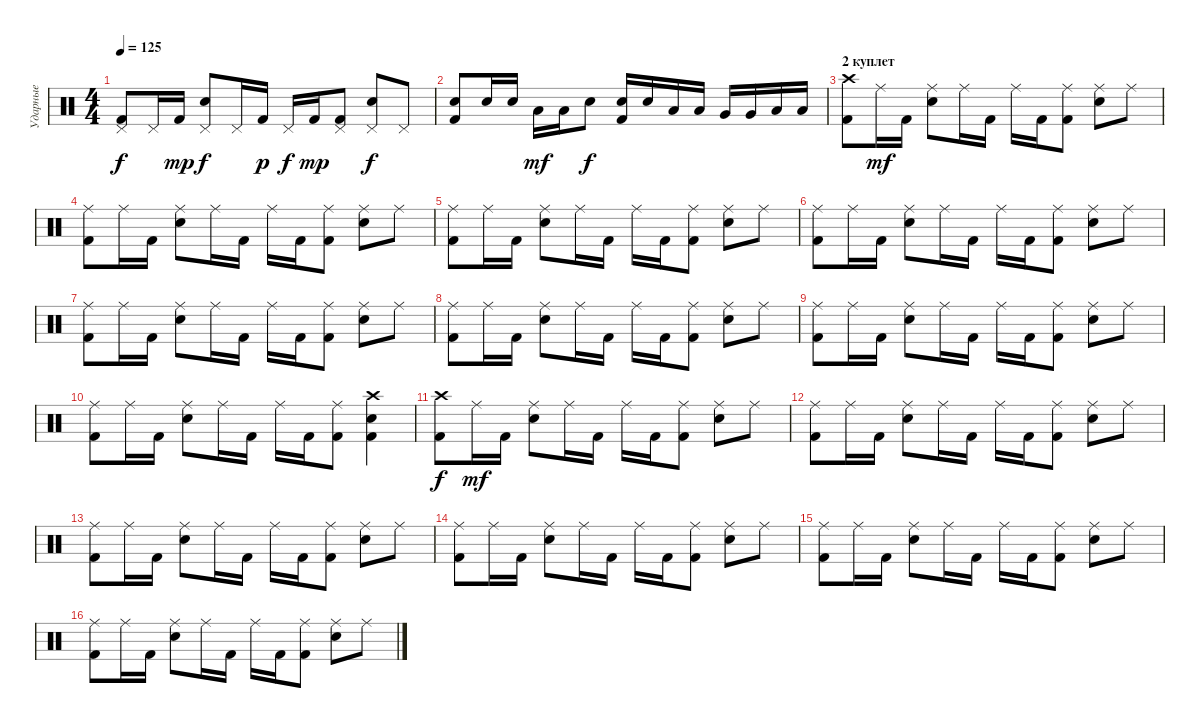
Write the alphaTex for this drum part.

\track ("Ударные" "Ударные") {instrument percussion}
\staff {score}
\articulation defaults
\ts (4 4)
\tempo 125
\clef neutral
\ks c
("Pedal Hi-Hat (hit)" "Kick (hit) 2").8{dy f} "Pedal Hi-Hat (hit)".16 "Kick (hit) 2".16{dy mp} ("Pedal Hi-Hat (hit)" "Snare (hit) 2").8{dy f} "Pedal Hi-Hat (hit)".16 "Kick (hit) 2".16{dy p} "Pedal Hi-Hat (hit)".16{dy f} "Kick (hit) 2".16{dy mp} ("Pedal Hi-Hat (hit)" "Kick (hit) 2").8 ("Pedal Hi-Hat (hit)" "Snare (hit) 2").8{dy f} "Pedal Hi-Hat (hit)".8 |
("Snare (hit) 2" "Kick (hit) 2").8 "Snare (hit) 2".16 "Snare (hit) 2".16 "Low Floor Tom (hit)".16{dy mf} "Low Floor Tom (hit)".16 "Snare (hit) 2".8{dy f} ("Snare (hit) 2" "Kick (hit) 2").16 "Snare (hit) 2".16 "Low Tom (hit)".16 "Low Tom (hit)".16 "Very Low Tom (hit)".16 "Very Low Tom (hit)".16 "Low Floor Tom (hit)".16 "Low Floor Tom (hit)".16 |
\section ("" "2 куплет")
("Crash high (hit)" "Kick (hit) 2").8 "Ride (middle)".16{dy mf} "Kick (hit) 2".16 ("Ride (middle)" "Snare (hit) 2").8 "Ride (middle)".16 "Kick (hit) 2".16 "Ride (middle)".16 "Kick (hit) 2".16 ("Ride (middle)" "Kick (hit) 2").8 ("Ride (middle)" "Snare (hit) 2").8 "Ride (middle)".8 |
("Ride (middle)" "Kick (hit) 2").8 "Ride (middle)".16 "Kick (hit) 2".16 ("Ride (middle)" "Snare (hit) 2").8 "Ride (middle)".16 "Kick (hit) 2".16 "Ride (middle)".16 "Kick (hit) 2".16 ("Ride (middle)" "Kick (hit) 2").8 ("Ride (middle)" "Snare (hit) 2").8 "Ride (middle)".8 |
("Ride (middle)" "Kick (hit) 2").8 "Ride (middle)".16 "Kick (hit) 2".16 ("Ride (middle)" "Snare (hit) 2").8 "Ride (middle)".16 "Kick (hit) 2".16 "Ride (middle)".16 "Kick (hit) 2".16 ("Ride (middle)" "Kick (hit) 2").8 ("Ride (middle)" "Snare (hit) 2").8 "Ride (middle)".8 |
("Ride (middle)" "Kick (hit) 2").8 "Ride (middle)".16 "Kick (hit) 2".16 ("Ride (middle)" "Snare (hit) 2").8 "Ride (middle)".16 "Kick (hit) 2".16 "Ride (middle)".16 "Kick (hit) 2".16 ("Ride (middle)" "Kick (hit) 2").8 ("Ride (middle)" "Snare (hit) 2").8 "Ride (middle)".8 |
("Ride (middle)" "Kick (hit) 2").8 "Ride (middle)".16 "Kick (hit) 2".16 ("Ride (middle)" "Snare (hit) 2").8 "Ride (middle)".16 "Kick (hit) 2".16 "Ride (middle)".16 "Kick (hit) 2".16 ("Ride (middle)" "Kick (hit) 2").8 ("Ride (middle)" "Snare (hit) 2").8 "Ride (middle)".8 |
("Ride (middle)" "Kick (hit) 2").8 "Ride (middle)".16 "Kick (hit) 2".16 ("Ride (middle)" "Snare (hit) 2").8 "Ride (middle)".16 "Kick (hit) 2".16 "Ride (middle)".16 "Kick (hit) 2".16 ("Ride (middle)" "Kick (hit) 2").8 ("Ride (middle)" "Snare (hit) 2").8 "Ride (middle)".8 |
("Ride (middle)" "Kick (hit) 2").8 "Ride (middle)".16 "Kick (hit) 2".16 ("Ride (middle)" "Snare (hit) 2").8 "Ride (middle)".16 "Kick (hit) 2".16 "Ride (middle)".16 "Kick (hit) 2".16 ("Ride (middle)" "Kick (hit) 2").8 ("Ride (middle)" "Snare (hit) 2").8 "Ride (middle)".8 |
("Ride (middle)" "Kick (hit) 2").8 "Ride (middle)".16 "Kick (hit) 2".16 ("Ride (middle)" "Snare (hit) 2").8 "Ride (middle)".16 "Kick (hit) 2".16 "Ride (middle)".16 "Kick (hit) 2".16 ("Ride (middle)" "Kick (hit) 2").8 ("Crash high (hit)" "Snare (hit) 2" "Kick (hit) 2").4 |
("Crash high (hit)" "Kick (hit) 2").8{dy f} "Ride (middle)".16{dy mf} "Kick (hit) 2".16 ("Ride (middle)" "Snare (hit) 2").8 "Ride (middle)".16 "Kick (hit) 2".16 "Ride (middle)".16 "Kick (hit) 2".16 ("Ride (middle)" "Kick (hit) 2").8 ("Ride (middle)" "Snare (hit) 2").8 "Ride (middle)".8 |
("Ride (middle)" "Kick (hit) 2").8 "Ride (middle)".16 "Kick (hit) 2".16 ("Ride (middle)" "Snare (hit) 2").8 "Ride (middle)".16 "Kick (hit) 2".16 "Ride (middle)".16 "Kick (hit) 2".16 ("Ride (middle)" "Kick (hit) 2").8 ("Ride (middle)" "Snare (hit) 2").8 "Ride (middle)".8 |
("Ride (middle)" "Kick (hit) 2").8 "Ride (middle)".16 "Kick (hit) 2".16 ("Ride (middle)" "Snare (hit) 2").8 "Ride (middle)".16 "Kick (hit) 2".16 "Ride (middle)".16 "Kick (hit) 2".16 ("Ride (middle)" "Kick (hit) 2").8 ("Ride (middle)" "Snare (hit) 2").8 "Ride (middle)".8 |
("Ride (middle)" "Kick (hit) 2").8 "Ride (middle)".16 "Kick (hit) 2".16 ("Ride (middle)" "Snare (hit) 2").8 "Ride (middle)".16 "Kick (hit) 2".16 "Ride (middle)".16 "Kick (hit) 2".16 ("Ride (middle)" "Kick (hit) 2").8 ("Ride (middle)" "Snare (hit) 2").8 "Ride (middle)".8 |
("Ride (middle)" "Kick (hit) 2").8 "Ride (middle)".16 "Kick (hit) 2".16 ("Ride (middle)" "Snare (hit) 2").8 "Ride (middle)".16 "Kick (hit) 2".16 "Ride (middle)".16 "Kick (hit) 2".16 ("Ride (middle)" "Kick (hit) 2").8 ("Ride (middle)" "Snare (hit) 2").8 "Ride (middle)".8 |
("Ride (middle)" "Kick (hit) 2").8 "Ride (middle)".16 "Kick (hit) 2".16 ("Ride (middle)" "Snare (hit) 2").8 "Ride (middle)".16 "Kick (hit) 2".16 "Ride (middle)".16 "Kick (hit) 2".16 ("Ride (middle)" "Kick (hit) 2").8 ("Ride (middle)" "Snare (hit) 2").8 "Ride (middle)".8
